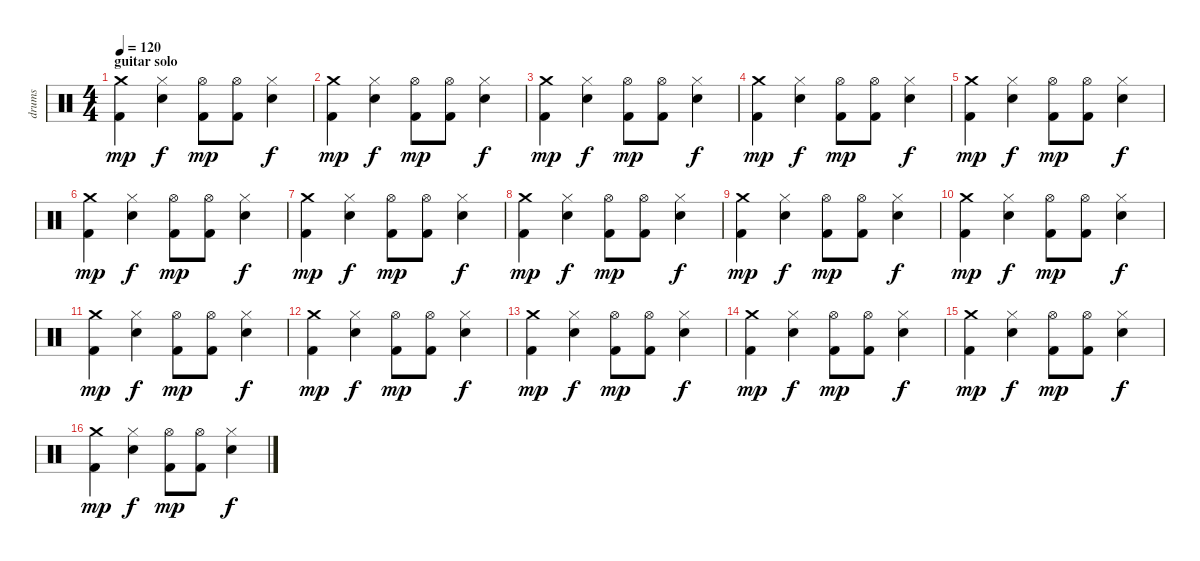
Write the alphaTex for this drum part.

\track ("drums" "drums") {instrument percussion}
\staff {score}
\articulation defaults
\ts (4 4)
\section ("" "guitar solo")
\tempo 120
\clef neutral
\ks c
("Kick (hit) 2" "Crash medium (hit)").4{dy mp} ("Electric Snare (hit)" "Hi-Hat (closed)").4{dy f} ("Kick (hit) 2" "Hi-Hat (open)").8{dy mp} ("Kick (hit) 2" "Hi-Hat (open)").8 ("Electric Snare (hit)" "Hi-Hat (closed)").4{dy f} |
("Kick (hit) 2" "Crash medium (hit)").4{dy mp} ("Electric Snare (hit)" "Hi-Hat (closed)").4{dy f} ("Kick (hit) 2" "Hi-Hat (open)").8{dy mp} ("Kick (hit) 2" "Hi-Hat (open)").8 ("Electric Snare (hit)" "Hi-Hat (closed)").4{dy f} |
("Kick (hit) 2" "Crash medium (hit)").4{dy mp} ("Electric Snare (hit)" "Hi-Hat (closed)").4{dy f} ("Kick (hit) 2" "Hi-Hat (open)").8{dy mp} ("Kick (hit) 2" "Hi-Hat (open)").8 ("Electric Snare (hit)" "Hi-Hat (closed)").4{dy f} |
("Kick (hit) 2" "Crash medium (hit)").4{dy mp} ("Electric Snare (hit)" "Hi-Hat (closed)").4{dy f} ("Kick (hit) 2" "Hi-Hat (open)").8{dy mp} ("Kick (hit) 2" "Hi-Hat (open)").8 ("Electric Snare (hit)" "Hi-Hat (closed)").4{dy f} |
("Kick (hit) 2" "Crash medium (hit)").4{dy mp} ("Electric Snare (hit)" "Hi-Hat (closed)").4{dy f} ("Kick (hit) 2" "Hi-Hat (open)").8{dy mp} ("Kick (hit) 2" "Hi-Hat (open)").8 ("Electric Snare (hit)" "Hi-Hat (closed)").4{dy f} |
("Kick (hit) 2" "Crash medium (hit)").4{dy mp} ("Electric Snare (hit)" "Hi-Hat (closed)").4{dy f} ("Kick (hit) 2" "Hi-Hat (open)").8{dy mp} ("Kick (hit) 2" "Hi-Hat (open)").8 ("Electric Snare (hit)" "Hi-Hat (closed)").4{dy f} |
("Kick (hit) 2" "Crash medium (hit)").4{dy mp} ("Electric Snare (hit)" "Hi-Hat (closed)").4{dy f} ("Kick (hit) 2" "Hi-Hat (open)").8{dy mp} ("Kick (hit) 2" "Hi-Hat (open)").8 ("Electric Snare (hit)" "Hi-Hat (closed)").4{dy f} |
("Kick (hit) 2" "Crash medium (hit)").4{dy mp} ("Electric Snare (hit)" "Hi-Hat (closed)").4{dy f} ("Kick (hit) 2" "Hi-Hat (open)").8{dy mp} ("Kick (hit) 2" "Hi-Hat (open)").8 ("Electric Snare (hit)" "Hi-Hat (closed)").4{dy f} |
("Kick (hit) 2" "Crash medium (hit)").4{dy mp} ("Electric Snare (hit)" "Hi-Hat (closed)").4{dy f} ("Kick (hit) 2" "Hi-Hat (open)").8{dy mp} ("Kick (hit) 2" "Hi-Hat (open)").8 ("Electric Snare (hit)" "Hi-Hat (closed)").4{dy f} |
("Kick (hit) 2" "Crash medium (hit)").4{dy mp} ("Electric Snare (hit)" "Hi-Hat (closed)").4{dy f} ("Kick (hit) 2" "Hi-Hat (open)").8{dy mp} ("Kick (hit) 2" "Hi-Hat (open)").8 ("Electric Snare (hit)" "Hi-Hat (closed)").4{dy f} |
("Kick (hit) 2" "Crash medium (hit)").4{dy mp} ("Electric Snare (hit)" "Hi-Hat (closed)").4{dy f} ("Kick (hit) 2" "Hi-Hat (open)").8{dy mp} ("Kick (hit) 2" "Hi-Hat (open)").8 ("Electric Snare (hit)" "Hi-Hat (closed)").4{dy f} |
("Kick (hit) 2" "Crash medium (hit)").4{dy mp} ("Electric Snare (hit)" "Hi-Hat (closed)").4{dy f} ("Kick (hit) 2" "Hi-Hat (open)").8{dy mp} ("Kick (hit) 2" "Hi-Hat (open)").8 ("Electric Snare (hit)" "Hi-Hat (closed)").4{dy f} |
("Kick (hit) 2" "Crash medium (hit)").4{dy mp} ("Electric Snare (hit)" "Hi-Hat (closed)").4{dy f} ("Kick (hit) 2" "Hi-Hat (open)").8{dy mp} ("Kick (hit) 2" "Hi-Hat (open)").8 ("Electric Snare (hit)" "Hi-Hat (closed)").4{dy f} |
("Kick (hit) 2" "Crash medium (hit)").4{dy mp} ("Electric Snare (hit)" "Hi-Hat (closed)").4{dy f} ("Kick (hit) 2" "Hi-Hat (open)").8{dy mp} ("Kick (hit) 2" "Hi-Hat (open)").8 ("Electric Snare (hit)" "Hi-Hat (closed)").4{dy f} |
("Kick (hit) 2" "Crash medium (hit)").4{dy mp} ("Electric Snare (hit)" "Hi-Hat (closed)").4{dy f} ("Kick (hit) 2" "Hi-Hat (open)").8{dy mp} ("Kick (hit) 2" "Hi-Hat (open)").8 ("Electric Snare (hit)" "Hi-Hat (closed)").4{dy f} |
("Kick (hit) 2" "Crash medium (hit)").4{dy mp} ("Electric Snare (hit)" "Hi-Hat (closed)").4{dy f} ("Kick (hit) 2" "Hi-Hat (open)").8{dy mp} ("Kick (hit) 2" "Hi-Hat (open)").8 ("Electric Snare (hit)" "Hi-Hat (closed)").4{dy f}
